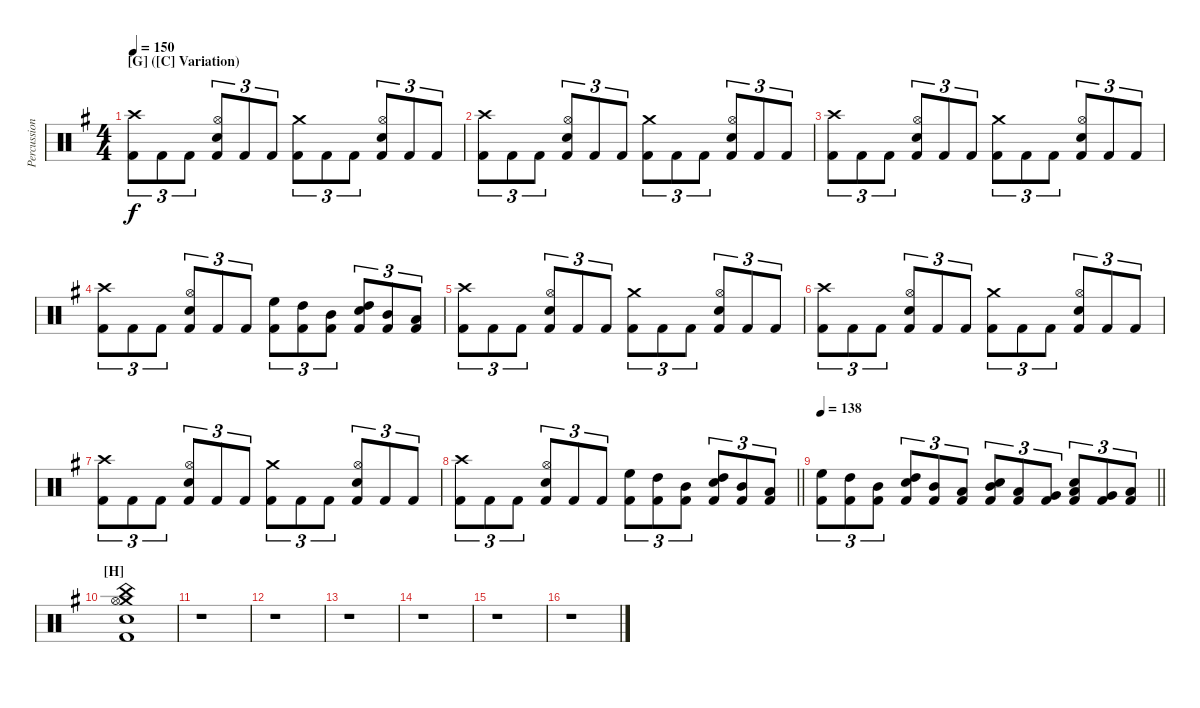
\track ("Percussion" "Percussion") {instrument percussion}
\staff {score}
\articulation defaults
\ts (4 4)
\section ("" "[G] ([C] Variation)")
\tempo 150
\clef neutral
\ks eminor
("Crash high (hit)" "Kick (hit) 2").8{tu (3 2) dy f} "Kick (hit) 2".8{tu (3 2)} "Kick (hit) 2".8{tu (3 2)} ("Hi-Hat (open)" "Snare (hit) 2" "Kick (hit) 2").8{tu (3 2)} "Kick (hit) 2".8{tu (3 2)} "Kick (hit) 2".8{tu (3 2)} ("Crash medium (hit)" "Kick (hit) 2").8{tu (3 2)} "Kick (hit) 2".8{tu (3 2)} "Kick (hit) 2".8{tu (3 2)} ("Hi-Hat (open)" "Snare (hit) 2" "Kick (hit) 2").8{tu (3 2)} "Kick (hit) 2".8{tu (3 2)} "Kick (hit) 2".8{tu (3 2)} |
("Crash high (hit)" "Kick (hit) 2").8{tu (3 2)} "Kick (hit) 2".8{tu (3 2)} "Kick (hit) 2".8{tu (3 2)} ("Hi-Hat (open)" "Snare (hit) 2" "Kick (hit) 2").8{tu (3 2)} "Kick (hit) 2".8{tu (3 2)} "Kick (hit) 2".8{tu (3 2)} ("Crash medium (hit)" "Kick (hit) 2").8{tu (3 2)} "Kick (hit) 2".8{tu (3 2)} "Kick (hit) 2".8{tu (3 2)} ("Hi-Hat (open)" "Snare (hit) 2" "Kick (hit) 2").8{tu (3 2)} "Kick (hit) 2".8{tu (3 2)} "Kick (hit) 2".8{tu (3 2)} |
("Crash high (hit)" "Kick (hit) 2").8{tu (3 2)} "Kick (hit) 2".8{tu (3 2)} "Kick (hit) 2".8{tu (3 2)} ("Hi-Hat (open)" "Snare (hit) 2" "Kick (hit) 2").8{tu (3 2)} "Kick (hit) 2".8{tu (3 2)} "Kick (hit) 2".8{tu (3 2)} ("Crash medium (hit)" "Kick (hit) 2").8{tu (3 2)} "Kick (hit) 2".8{tu (3 2)} "Kick (hit) 2".8{tu (3 2)} ("Hi-Hat (open)" "Snare (hit) 2" "Kick (hit) 2").8{tu (3 2)} "Kick (hit) 2".8{tu (3 2)} "Kick (hit) 2".8{tu (3 2)} |
("Crash high (hit)" "Kick (hit) 2").8{tu (3 2)} "Kick (hit) 2".8{tu (3 2)} "Kick (hit) 2".8{tu (3 2)} ("Hi-Hat (open)" "Snare (hit) 2" "Kick (hit) 2").8{tu (3 2)} "Kick (hit) 2".8{tu (3 2)} "Kick (hit) 2".8{tu (3 2)} ("High Floor Tom (hit)" "Kick (hit) 2").8{tu (3 2)} ("High Tom (hit)" "Kick (hit) 2").8{tu (3 2)} ("Mid Tom (hit)" "Kick (hit) 2").8{tu (3 2)} ("High Tom (hit)" "Snare (hit) 2" "Kick (hit) 2").8{tu (3 2)} ("Mid Tom (hit)" "Kick (hit) 2").8{tu (3 2)} ("Low Tom (hit)" "Kick (hit) 2").8{tu (3 2)} |
("Crash high (hit)" "Kick (hit) 2").8{tu (3 2)} "Kick (hit) 2".8{tu (3 2)} "Kick (hit) 2".8{tu (3 2)} ("Hi-Hat (open)" "Snare (hit) 2" "Kick (hit) 2").8{tu (3 2)} "Kick (hit) 2".8{tu (3 2)} "Kick (hit) 2".8{tu (3 2)} ("Crash medium (hit)" "Kick (hit) 2").8{tu (3 2)} "Kick (hit) 2".8{tu (3 2)} "Kick (hit) 2".8{tu (3 2)} ("Hi-Hat (open)" "Snare (hit) 2" "Kick (hit) 2").8{tu (3 2)} "Kick (hit) 2".8{tu (3 2)} "Kick (hit) 2".8{tu (3 2)} |
("Crash high (hit)" "Kick (hit) 2").8{tu (3 2)} "Kick (hit) 2".8{tu (3 2)} "Kick (hit) 2".8{tu (3 2)} ("Hi-Hat (open)" "Snare (hit) 2" "Kick (hit) 2").8{tu (3 2)} "Kick (hit) 2".8{tu (3 2)} "Kick (hit) 2".8{tu (3 2)} ("Crash medium (hit)" "Kick (hit) 2").8{tu (3 2)} "Kick (hit) 2".8{tu (3 2)} "Kick (hit) 2".8{tu (3 2)} ("Hi-Hat (open)" "Snare (hit) 2" "Kick (hit) 2").8{tu (3 2)} "Kick (hit) 2".8{tu (3 2)} "Kick (hit) 2".8{tu (3 2)} |
("Crash high (hit)" "Kick (hit) 2").8{tu (3 2)} "Kick (hit) 2".8{tu (3 2)} "Kick (hit) 2".8{tu (3 2)} ("Hi-Hat (open)" "Snare (hit) 2" "Kick (hit) 2").8{tu (3 2)} "Kick (hit) 2".8{tu (3 2)} "Kick (hit) 2".8{tu (3 2)} ("Crash medium (hit)" "Kick (hit) 2").8{tu (3 2)} "Kick (hit) 2".8{tu (3 2)} "Kick (hit) 2".8{tu (3 2)} ("Hi-Hat (open)" "Snare (hit) 2" "Kick (hit) 2").8{tu (3 2)} "Kick (hit) 2".8{tu (3 2)} "Kick (hit) 2".8{tu (3 2)} |
\barLineRight lightlight
("Crash high (hit)" "Kick (hit) 2").8{tu (3 2)} "Kick (hit) 2".8{tu (3 2)} "Kick (hit) 2".8{tu (3 2)} ("Hi-Hat (open)" "Snare (hit) 2" "Kick (hit) 2").8{tu (3 2)} "Kick (hit) 2".8{tu (3 2)} "Kick (hit) 2".8{tu (3 2)} ("High Floor Tom (hit)" "Kick (hit) 2").8{tu (3 2)} ("High Tom (hit)" "Kick (hit) 2").8{tu (3 2)} ("Mid Tom (hit)" "Kick (hit) 2").8{tu (3 2)} ("High Tom (hit)" "Snare (hit) 2" "Kick (hit) 2").8{tu (3 2)} ("Mid Tom (hit)" "Kick (hit) 2").8{tu (3 2)} ("Low Tom (hit)" "Kick (hit) 2").8{tu (3 2)} |
\tempo 138
\barLineRight lightlight
("High Floor Tom (hit)" "Kick (hit) 2").8{tu (3 2)} ("High Tom (hit)" "Kick (hit) 2").8{tu (3 2)} ("Mid Tom (hit)" "Kick (hit) 2").8{tu (3 2)} ("High Tom (hit)" "Snare (hit) 2" "Kick (hit) 2").8{tu (3 2)} ("Mid Tom (hit)" "Kick (hit) 2").8{tu (3 2)} ("Low Tom (hit)" "Kick (hit) 2").8{tu (3 2)} ("Mid Tom (hit)" "Snare (hit) 2" "Kick (hit) 2").8{tu (3 2)} ("Low Tom (hit)" "Kick (hit) 2").8{tu (3 2)} ("Very Low Tom (hit)" "Kick (hit) 2").8{tu (3 2)} ("Low Tom (hit)" "Snare (hit) 2" "Kick (hit) 2").8{tu (3 2)} ("Very Low Tom (hit)" "Kick (hit) 2").8{tu (3 2)} ("Low Floor Tom (hit)" "Kick (hit) 2").8{tu (3 2)} |
\section ("" "[H]")
("Crash medium (hit)" "China (hit)" "Hi-Hat (open)" "Snare (hit) 2" "Kick (hit) 2").1 |
r.1 |
r.1 |
r.1 |
r.1 |
r.1 |
r.1
